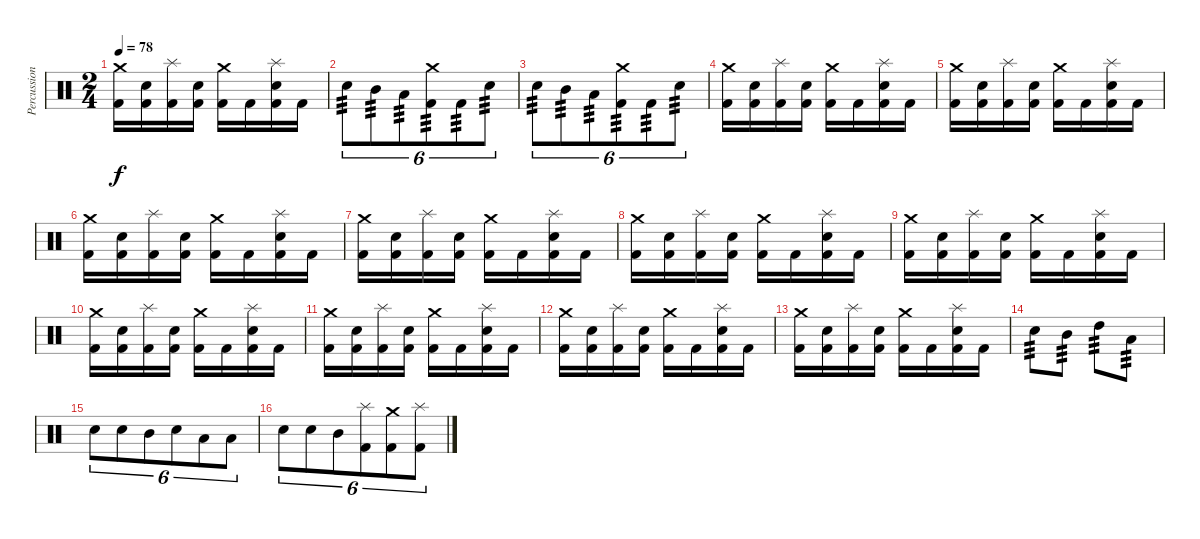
\track ("Percussion" "Percussion") {instrument percussion}
\staff {score}
\articulation defaults
\ts (2 4)
\tempo 78
\clef neutral
\ks c
("Kick (hit) 2" "Crash medium (hit)").16{dy f} ("Kick (hit) 2" "Snare (hit) 2").16 ("Kick (hit) 2" "Splash (hit)").16 ("Kick (hit) 2" "Snare (hit) 2").16 ("Kick (hit) 2" "Crash medium (hit)").16 "Kick (hit) 2".16 ("Kick (hit) 2" "Snare (hit) 2" "Splash (hit)").16 "Kick (hit) 2".16 |
"Snare (hit) 2".8{tu (6 4) tp 3} "Mid Tom (hit)".8{tu (6 4) tp 3} "Low Tom (hit)".8{tu (6 4) tp 3} ("Crash medium (hit)" "Kick (hit) 2").8{tu (6 4) tp 3} "Kick (hit) 2".8{tu (6 4) tp 3} "Snare (hit) 2".8{tu (6 4) tp 3} |
"Snare (hit) 2".8{tu (6 4) tp 3} "Mid Tom (hit)".8{tu (6 4) tp 3} "Low Tom (hit)".8{tu (6 4) tp 3} ("Crash medium (hit)" "Kick (hit) 2").8{tu (6 4) tp 3} "Kick (hit) 2".8{tu (6 4) tp 3} "Snare (hit) 2".8{tu (6 4) tp 3} |
("Kick (hit) 2" "Crash medium (hit)").16 ("Kick (hit) 2" "Snare (hit) 2").16 ("Kick (hit) 2" "Splash (hit)").16 ("Kick (hit) 2" "Snare (hit) 2").16 ("Kick (hit) 2" "Crash medium (hit)").16 "Kick (hit) 2".16 ("Kick (hit) 2" "Snare (hit) 2" "Splash (hit)").16 "Kick (hit) 2".16 |
("Kick (hit) 2" "Crash medium (hit)").16 ("Kick (hit) 2" "Snare (hit) 2").16 ("Kick (hit) 2" "Splash (hit)").16 ("Kick (hit) 2" "Snare (hit) 2").16 ("Kick (hit) 2" "Crash medium (hit)").16 "Kick (hit) 2".16 ("Kick (hit) 2" "Snare (hit) 2" "Splash (hit)").16 "Kick (hit) 2".16 |
("Kick (hit) 2" "Crash medium (hit)").16 ("Kick (hit) 2" "Snare (hit) 2").16 ("Kick (hit) 2" "Splash (hit)").16 ("Kick (hit) 2" "Snare (hit) 2").16 ("Kick (hit) 2" "Crash medium (hit)").16 "Kick (hit) 2".16 ("Kick (hit) 2" "Snare (hit) 2" "Splash (hit)").16 "Kick (hit) 2".16 |
("Kick (hit) 2" "Crash medium (hit)").16 ("Kick (hit) 2" "Snare (hit) 2").16 ("Kick (hit) 2" "Splash (hit)").16 ("Kick (hit) 2" "Snare (hit) 2").16 ("Kick (hit) 2" "Crash medium (hit)").16 "Kick (hit) 2".16 ("Kick (hit) 2" "Snare (hit) 2" "Splash (hit)").16 "Kick (hit) 2".16 |
("Kick (hit) 2" "Crash medium (hit)").16 ("Kick (hit) 2" "Snare (hit) 2").16 ("Kick (hit) 2" "Splash (hit)").16 ("Kick (hit) 2" "Snare (hit) 2").16 ("Kick (hit) 2" "Crash medium (hit)").16 "Kick (hit) 2".16 ("Kick (hit) 2" "Snare (hit) 2" "Splash (hit)").16 "Kick (hit) 2".16 |
("Kick (hit) 2" "Crash medium (hit)").16 ("Kick (hit) 2" "Snare (hit) 2").16 ("Kick (hit) 2" "Splash (hit)").16 ("Kick (hit) 2" "Snare (hit) 2").16 ("Kick (hit) 2" "Crash medium (hit)").16 "Kick (hit) 2".16 ("Kick (hit) 2" "Snare (hit) 2" "Splash (hit)").16 "Kick (hit) 2".16 |
("Kick (hit) 2" "Crash medium (hit)").16 ("Kick (hit) 2" "Snare (hit) 2").16 ("Kick (hit) 2" "Splash (hit)").16 ("Kick (hit) 2" "Snare (hit) 2").16 ("Kick (hit) 2" "Crash medium (hit)").16 "Kick (hit) 2".16 ("Kick (hit) 2" "Snare (hit) 2" "Splash (hit)").16 "Kick (hit) 2".16 |
("Kick (hit) 2" "Crash medium (hit)").16 ("Kick (hit) 2" "Snare (hit) 2").16 ("Kick (hit) 2" "Splash (hit)").16 ("Kick (hit) 2" "Snare (hit) 2").16 ("Kick (hit) 2" "Crash medium (hit)").16 "Kick (hit) 2".16 ("Kick (hit) 2" "Snare (hit) 2" "Splash (hit)").16 "Kick (hit) 2".16 |
("Kick (hit) 2" "Crash medium (hit)").16 ("Kick (hit) 2" "Snare (hit) 2").16 ("Kick (hit) 2" "Splash (hit)").16 ("Kick (hit) 2" "Snare (hit) 2").16 ("Kick (hit) 2" "Crash medium (hit)").16 "Kick (hit) 2".16 ("Kick (hit) 2" "Snare (hit) 2" "Splash (hit)").16 "Kick (hit) 2".16 |
("Kick (hit) 2" "Crash medium (hit)").16 ("Kick (hit) 2" "Snare (hit) 2").16 ("Kick (hit) 2" "Splash (hit)").16 ("Kick (hit) 2" "Snare (hit) 2").16 ("Kick (hit) 2" "Crash medium (hit)").16 "Kick (hit) 2".16 ("Kick (hit) 2" "Snare (hit) 2" "Splash (hit)").16 "Kick (hit) 2".16 |
"Snare (hit) 2".8{tp 3} "Mid Tom (hit)".8{tp 3} "High Tom (hit)".8{tp 3} "Low Tom (hit)".8{tp 3} |
"Snare (hit) 2".8{tu (6 4)} "Snare (hit) 2".8{tu (6 4)} "Mid Tom (hit)".8{tu (6 4)} "Snare (hit) 2".8{tu (6 4)} "Low Tom (hit)".8{tu (6 4)} "Low Tom (hit)".8{tu (6 4)} |
"Snare (hit) 2".8{tu (6 4)} "Snare (hit) 2".8{tu (6 4)} "Mid Tom (hit)".8{tu (6 4)} ("Kick (hit) 2" "Splash (hit)").8{tu (6 4)} ("Kick (hit) 2" "Crash medium (hit)").8{tu (6 4)} ("Kick (hit) 2" "Splash (hit)").8{tu (6 4)}
